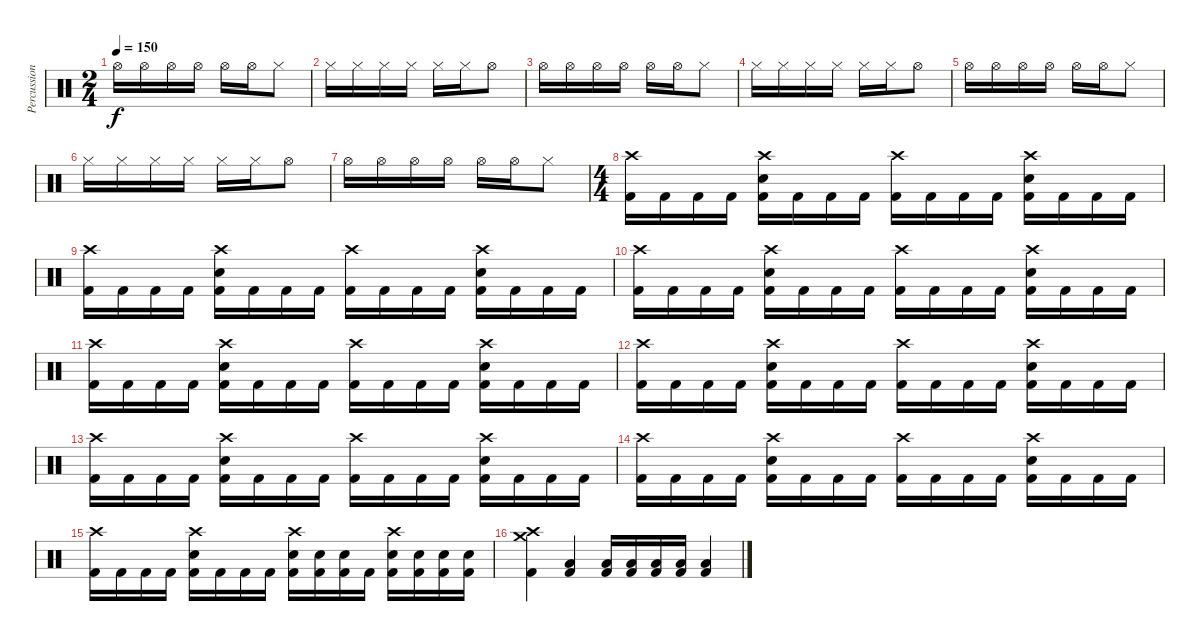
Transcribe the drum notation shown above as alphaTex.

\track ("Percussion" "Percussion") {instrument percussion}
\staff {score}
\articulation defaults
\ts (2 4)
\tempo 150
\clef neutral
\ks c "Hi-Hat (open)".16{dy f} "Hi-Hat (open)".16 "Hi-Hat (open)".16 "Hi-Hat (open)".16 "Hi-Hat (open)".16 "Hi-Hat (open)".16 "Hi-Hat (closed)".8
|
"Hi-Hat (closed)".16 "Hi-Hat (closed)".16 "Hi-Hat (closed)".16 "Hi-Hat (closed)".16 "Hi-Hat (closed)".16 "Hi-Hat (closed)".16 "Hi-Hat (open)".8 |
"Hi-Hat (open)".16 "Hi-Hat (open)".16 "Hi-Hat (open)".16 "Hi-Hat (open)".16 "Hi-Hat (open)".16 "Hi-Hat (open)".16 "Hi-Hat (closed)".8 |
"Hi-Hat (closed)".16 "Hi-Hat (closed)".16 "Hi-Hat (closed)".16 "Hi-Hat (closed)".16 "Hi-Hat (closed)".16 "Hi-Hat (closed)".16 "Hi-Hat (open)".8 |
"Hi-Hat (open)".16 "Hi-Hat (open)".16 "Hi-Hat (open)".16 "Hi-Hat (open)".16 "Hi-Hat (open)".16 "Hi-Hat (open)".16 "Hi-Hat (closed)".8 |
"Hi-Hat (closed)".16 "Hi-Hat (closed)".16 "Hi-Hat (closed)".16 "Hi-Hat (closed)".16 "Hi-Hat (closed)".16 "Hi-Hat (closed)".16 "Hi-Hat (open)".8 |
"Hi-Hat (open)".16 "Hi-Hat (open)".16 "Hi-Hat (open)".16 "Hi-Hat (open)".16 "Hi-Hat (open)".16 "Hi-Hat (open)".16 "Hi-Hat (closed)".8 |
\ts (4 4)
("Crash high (hit)" "Kick (hit) 2").16 "Kick (hit) 2".16 "Kick (hit) 2".16 "Kick (hit) 2".16 ("Crash high (hit)" "Electric Snare (hit)" "Kick (hit) 2").16 "Kick (hit) 2".16 "Kick (hit) 2".16 "Kick (hit) 2".16 ("Crash high (hit)" "Kick (hit) 2").16 "Kick (hit) 2".16 "Kick (hit) 2".16 "Kick (hit) 2".16 ("Crash high (hit)" "Electric Snare (hit)" "Kick (hit) 2").16 "Kick (hit) 2".16 "Kick (hit) 2".16 "Kick (hit) 2".16 |
("Crash high (hit)" "Kick (hit) 2").16 "Kick (hit) 2".16 "Kick (hit) 2".16 "Kick (hit) 2".16 ("Crash high (hit)" "Electric Snare (hit)" "Kick (hit) 2").16 "Kick (hit) 2".16 "Kick (hit) 2".16 "Kick (hit) 2".16 ("Crash high (hit)" "Kick (hit) 2").16 "Kick (hit) 2".16 "Kick (hit) 2".16 "Kick (hit) 2".16 ("Crash high (hit)" "Electric Snare (hit)" "Kick (hit) 2").16 "Kick (hit) 2".16 "Kick (hit) 2".16 "Kick (hit) 2".16 |
("Crash high (hit)" "Kick (hit) 2").16 "Kick (hit) 2".16 "Kick (hit) 2".16 "Kick (hit) 2".16 ("Crash high (hit)" "Electric Snare (hit)" "Kick (hit) 2").16 "Kick (hit) 2".16 "Kick (hit) 2".16 "Kick (hit) 2".16 ("Crash high (hit)" "Kick (hit) 2").16 "Kick (hit) 2".16 "Kick (hit) 2".16 "Kick (hit) 2".16 ("Crash high (hit)" "Electric Snare (hit)" "Kick (hit) 2").16 "Kick (hit) 2".16 "Kick (hit) 2".16 "Kick (hit) 2".16 |
("Crash high (hit)" "Kick (hit) 2").16 "Kick (hit) 2".16 "Kick (hit) 2".16 "Kick (hit) 2".16 ("Crash high (hit)" "Electric Snare (hit)" "Kick (hit) 2").16 "Kick (hit) 2".16 "Kick (hit) 2".16 "Kick (hit) 2".16 ("Crash high (hit)" "Kick (hit) 2").16 "Kick (hit) 2".16 "Kick (hit) 2".16 "Kick (hit) 2".16 ("Crash high (hit)" "Electric Snare (hit)" "Kick (hit) 2").16 "Kick (hit) 2".16 "Kick (hit) 2".16 "Kick (hit) 2".16 |
("Crash high (hit)" "Kick (hit) 2").16 "Kick (hit) 2".16 "Kick (hit) 2".16 "Kick (hit) 2".16 ("Crash high (hit)" "Electric Snare (hit)" "Kick (hit) 2").16 "Kick (hit) 2".16 "Kick (hit) 2".16 "Kick (hit) 2".16 ("Crash high (hit)" "Kick (hit) 2").16 "Kick (hit) 2".16 "Kick (hit) 2".16 "Kick (hit) 2".16 ("Crash high (hit)" "Electric Snare (hit)" "Kick (hit) 2").16 "Kick (hit) 2".16 "Kick (hit) 2".16 "Kick (hit) 2".16 |
("Crash high (hit)" "Kick (hit) 2").16 "Kick (hit) 2".16 "Kick (hit) 2".16 "Kick (hit) 2".16 ("Crash high (hit)" "Electric Snare (hit)" "Kick (hit) 2").16 "Kick (hit) 2".16 "Kick (hit) 2".16 "Kick (hit) 2".16 ("Crash high (hit)" "Kick (hit) 2").16 "Kick (hit) 2".16 "Kick (hit) 2".16 "Kick (hit) 2".16 ("Crash high (hit)" "Electric Snare (hit)" "Kick (hit) 2").16 "Kick (hit) 2".16 "Kick (hit) 2".16 "Kick (hit) 2".16 |
("Crash high (hit)" "Kick (hit) 2").16 "Kick (hit) 2".16 "Kick (hit) 2".16 "Kick (hit) 2".16 ("Crash high (hit)" "Electric Snare (hit)" "Kick (hit) 2").16 "Kick (hit) 2".16 "Kick (hit) 2".16 "Kick (hit) 2".16 ("Crash high (hit)" "Kick (hit) 2").16 "Kick (hit) 2".16 "Kick (hit) 2".16 "Kick (hit) 2".16 ("Crash high (hit)" "Electric Snare (hit)" "Kick (hit) 2").16 "Kick (hit) 2".16 "Kick (hit) 2".16 "Kick (hit) 2".16 |
("Crash high (hit)" "Kick (hit) 2").16 "Kick (hit) 2".16 "Kick (hit) 2".16 "Kick (hit) 2".16 ("Crash high (hit)" "Electric Snare (hit)" "Kick (hit) 2").16 "Kick (hit) 2".16 "Kick (hit) 2".16 "Kick (hit) 2".16 ("Crash high (hit)" "Electric Snare (hit)" "Kick (hit) 2").16 ("Electric Snare (hit)" "Kick (hit) 2").16 ("Electric Snare (hit)" "Kick (hit) 2").16 "Kick (hit) 2".16 ("Crash high (hit)" "Electric Snare (hit)" "Kick (hit) 2").16 ("Electric Snare (hit)" "Kick (hit) 2").16 ("Electric Snare (hit)" "Kick (hit) 2").16 ("Electric Snare (hit)" "Kick (hit) 2").16 |
("Crash medium (hit)" "Crash high (hit)" "Kick (hit) 2").4 ("Low Floor Tom (hit)" "Kick (hit) 2").4 ("Low Floor Tom (hit)" "Kick (hit) 2").16 ("Low Floor Tom (hit)" "Kick (hit) 2").16 ("Low Floor Tom (hit)" "Kick (hit) 2").16 ("Low Floor Tom (hit)" "Kick (hit) 2").16 ("Low Floor Tom (hit)" "Kick (hit) 2").4
